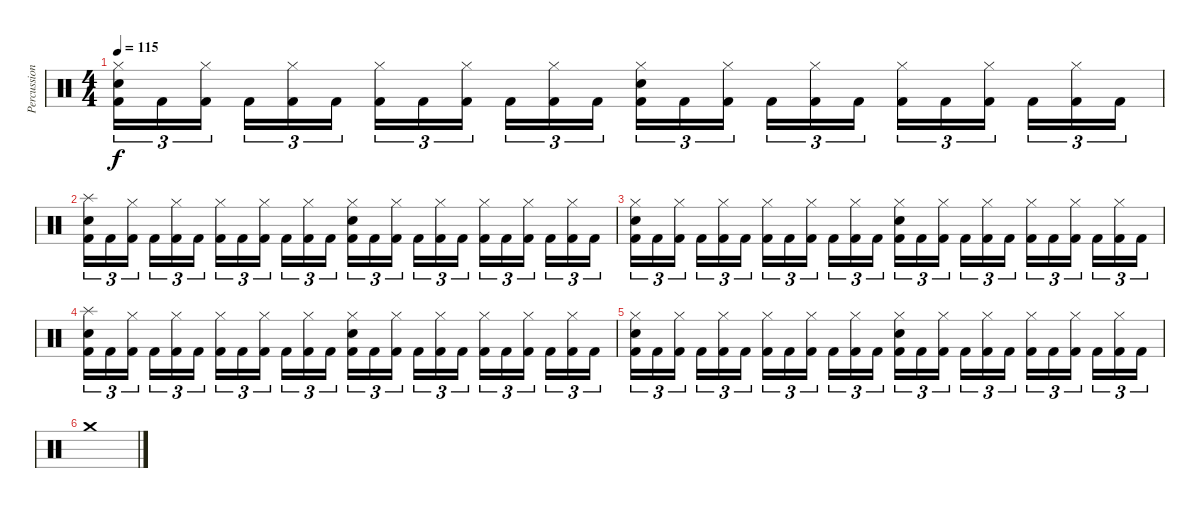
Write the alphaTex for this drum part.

\track ("Percussions" "Percussion") {instrument percussion}
\staff {score}
\articulation defaults
\ts (4 4)
\tempo 115
\clef neutral
\ks c
("Hi-Hat (closed)" "Snare (hit) 2" "Kick (hit) 2").16{tu (3 2) dy f} "Kick (hit) 2".16{tu (3 2)} ("Hi-Hat (closed)" "Kick (hit) 2").16{tu (3 2)} "Kick (hit) 2".16{tu (3 2)} ("Hi-Hat (closed)" "Kick (hit) 2").16{tu (3 2)} "Kick (hit) 2".16{tu (3 2)} ("Hi-Hat (closed)" "Kick (hit) 2").16{tu (3 2)} "Kick (hit) 2".16{tu (3 2)} ("Hi-Hat (closed)" "Kick (hit) 2").16{tu (3 2)} "Kick (hit) 2".16{tu (3 2)} ("Hi-Hat (closed)" "Kick (hit) 2").16{tu (3 2)} "Kick (hit) 2".16{tu (3 2)} ("Hi-Hat (closed)" "Snare (hit) 2" "Kick (hit) 2").16{tu (3 2)} "Kick (hit) 2".16{tu (3 2)} ("Hi-Hat (closed)" "Kick (hit) 2").16{tu (3 2)} "Kick (hit) 2".16{tu (3 2)} ("Hi-Hat (closed)" "Kick (hit) 2").16{tu (3 2)} "Kick (hit) 2".16{tu (3 2)} ("Hi-Hat (closed)" "Kick (hit) 2").16{tu (3 2)} "Kick (hit) 2".16{tu (3 2)} ("Hi-Hat (closed)" "Kick (hit) 2").16{tu (3 2)} "Kick (hit) 2".16{tu (3 2)} ("Hi-Hat (closed)" "Kick (hit) 2").16{tu (3 2)} "Kick (hit) 2".16{tu (3 2)} |
("Splash (hit)" "Snare (hit) 2" "Kick (hit) 2").16{tu (3 2)} "Kick (hit) 2".16{tu (3 2)} ("Hi-Hat (closed)" "Kick (hit) 2").16{tu (3 2)} "Kick (hit) 2".16{tu (3 2)} ("Hi-Hat (closed)" "Kick (hit) 2").16{tu (3 2)} "Kick (hit) 2".16{tu (3 2)} ("Hi-Hat (closed)" "Kick (hit) 2").16{tu (3 2)} "Kick (hit) 2".16{tu (3 2)} ("Hi-Hat (closed)" "Kick (hit) 2").16{tu (3 2)} "Kick (hit) 2".16{tu (3 2)} ("Hi-Hat (closed)" "Kick (hit) 2").16{tu (3 2)} "Kick (hit) 2".16{tu (3 2)} ("Hi-Hat (closed)" "Snare (hit) 2" "Kick (hit) 2").16{tu (3 2)} "Kick (hit) 2".16{tu (3 2)} ("Hi-Hat (closed)" "Kick (hit) 2").16{tu (3 2)} "Kick (hit) 2".16{tu (3 2)} ("Hi-Hat (closed)" "Kick (hit) 2").16{tu (3 2)} "Kick (hit) 2".16{tu (3 2)} ("Hi-Hat (closed)" "Kick (hit) 2").16{tu (3 2)} "Kick (hit) 2".16{tu (3 2)} ("Hi-Hat (closed)" "Kick (hit) 2").16{tu (3 2)} "Kick (hit) 2".16{tu (3 2)} ("Hi-Hat (closed)" "Kick (hit) 2").16{tu (3 2)} "Kick (hit) 2".16{tu (3 2)} |
("Hi-Hat (closed)" "Snare (hit) 2" "Kick (hit) 2").16{tu (3 2)} "Kick (hit) 2".16{tu (3 2)} ("Hi-Hat (closed)" "Kick (hit) 2").16{tu (3 2)} "Kick (hit) 2".16{tu (3 2)} ("Hi-Hat (closed)" "Kick (hit) 2").16{tu (3 2)} "Kick (hit) 2".16{tu (3 2)} ("Hi-Hat (closed)" "Kick (hit) 2").16{tu (3 2)} "Kick (hit) 2".16{tu (3 2)} ("Hi-Hat (closed)" "Kick (hit) 2").16{tu (3 2)} "Kick (hit) 2".16{tu (3 2)} ("Hi-Hat (closed)" "Kick (hit) 2").16{tu (3 2)} "Kick (hit) 2".16{tu (3 2)} ("Hi-Hat (closed)" "Snare (hit) 2" "Kick (hit) 2").16{tu (3 2)} "Kick (hit) 2".16{tu (3 2)} ("Hi-Hat (closed)" "Kick (hit) 2").16{tu (3 2)} "Kick (hit) 2".16{tu (3 2)} ("Hi-Hat (closed)" "Kick (hit) 2").16{tu (3 2)} "Kick (hit) 2".16{tu (3 2)} ("Hi-Hat (closed)" "Kick (hit) 2").16{tu (3 2)} "Kick (hit) 2".16{tu (3 2)} ("Hi-Hat (closed)" "Kick (hit) 2").16{tu (3 2)} "Kick (hit) 2".16{tu (3 2)} ("Hi-Hat (closed)" "Kick (hit) 2").16{tu (3 2)} "Kick (hit) 2".16{tu (3 2)} |
("Splash (hit)" "Snare (hit) 2" "Kick (hit) 2").16{tu (3 2)} "Kick (hit) 2".16{tu (3 2)} ("Hi-Hat (closed)" "Kick (hit) 2").16{tu (3 2)} "Kick (hit) 2".16{tu (3 2)} ("Hi-Hat (closed)" "Kick (hit) 2").16{tu (3 2)} "Kick (hit) 2".16{tu (3 2)} ("Hi-Hat (closed)" "Kick (hit) 2").16{tu (3 2)} "Kick (hit) 2".16{tu (3 2)} ("Hi-Hat (closed)" "Kick (hit) 2").16{tu (3 2)} "Kick (hit) 2".16{tu (3 2)} ("Hi-Hat (closed)" "Kick (hit) 2").16{tu (3 2)} "Kick (hit) 2".16{tu (3 2)} ("Hi-Hat (closed)" "Snare (hit) 2" "Kick (hit) 2").16{tu (3 2)} "Kick (hit) 2".16{tu (3 2)} ("Hi-Hat (closed)" "Kick (hit) 2").16{tu (3 2)} "Kick (hit) 2".16{tu (3 2)} ("Hi-Hat (closed)" "Kick (hit) 2").16{tu (3 2)} "Kick (hit) 2".16{tu (3 2)} ("Hi-Hat (closed)" "Kick (hit) 2").16{tu (3 2)} "Kick (hit) 2".16{tu (3 2)} ("Hi-Hat (closed)" "Kick (hit) 2").16{tu (3 2)} "Kick (hit) 2".16{tu (3 2)} ("Hi-Hat (closed)" "Kick (hit) 2").16{tu (3 2)} "Kick (hit) 2".16{tu (3 2)} |
("Hi-Hat (closed)" "Snare (hit) 2" "Kick (hit) 2").16{tu (3 2)} "Kick (hit) 2".16{tu (3 2)} ("Hi-Hat (closed)" "Kick (hit) 2").16{tu (3 2)} "Kick (hit) 2".16{tu (3 2)} ("Hi-Hat (closed)" "Kick (hit) 2").16{tu (3 2)} "Kick (hit) 2".16{tu (3 2)} ("Hi-Hat (closed)" "Kick (hit) 2").16{tu (3 2)} "Kick (hit) 2".16{tu (3 2)} ("Hi-Hat (closed)" "Kick (hit) 2").16{tu (3 2)} "Kick (hit) 2".16{tu (3 2)} ("Hi-Hat (closed)" "Kick (hit) 2").16{tu (3 2)} "Kick (hit) 2".16{tu (3 2)} ("Hi-Hat (closed)" "Snare (hit) 2" "Kick (hit) 2").16{tu (3 2)} "Kick (hit) 2".16{tu (3 2)} ("Hi-Hat (closed)" "Kick (hit) 2").16{tu (3 2)} "Kick (hit) 2".16{tu (3 2)} ("Hi-Hat (closed)" "Kick (hit) 2").16{tu (3 2)} "Kick (hit) 2".16{tu (3 2)} ("Hi-Hat (closed)" "Kick (hit) 2").16{tu (3 2)} "Kick (hit) 2".16{tu (3 2)} ("Hi-Hat (closed)" "Kick (hit) 2").16{tu (3 2)} "Kick (hit) 2".16{tu (3 2)} ("Hi-Hat (closed)" "Kick (hit) 2").16{tu (3 2)} "Kick (hit) 2".16{tu (3 2)} |
"Crash medium (hit)".1
